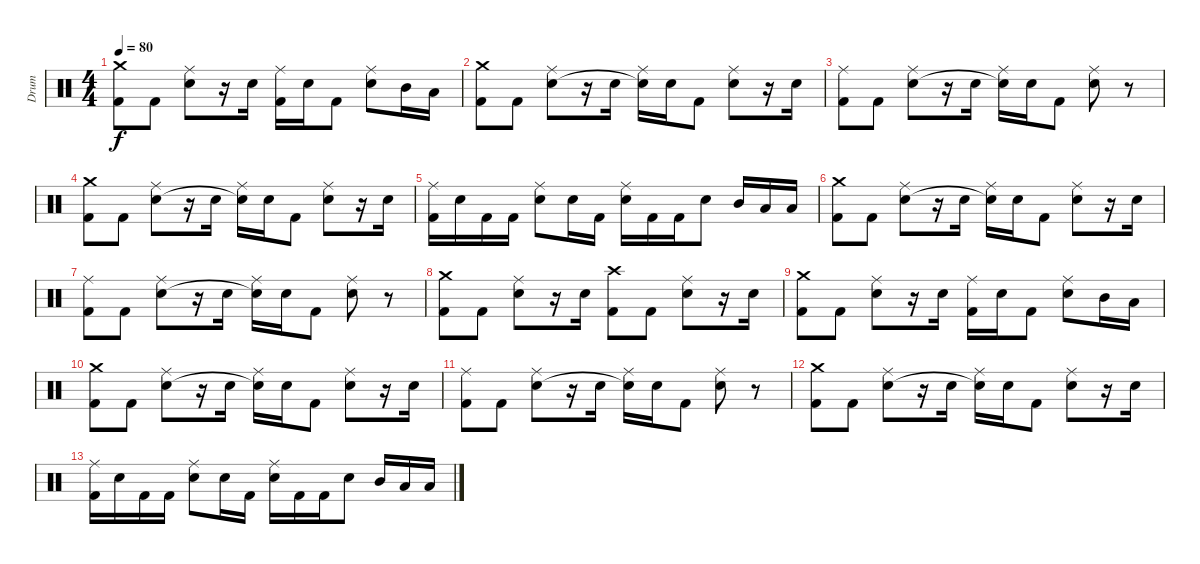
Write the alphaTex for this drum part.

\track ("Drum" "Drum") {instrument percussion}
\staff {score}
\articulation defaults
\ts (4 4)
\tempo 80
\clef neutral
\ks c
("Crash medium (hit)" "Kick (hit) 2").8{dy f} "Kick (hit) 2".8 ("Ride (middle)" "Electric Snare (hit)").8 r.16 "Electric Snare (hit)".16 ("Ride (middle)" "Kick (hit) 2").16 "Electric Snare (hit)".16 "Kick (hit) 2".8 ("Ride (middle)" "Electric Snare (hit)").8 "Mid Tom (hit)".16 "Low Tom (hit)".16 |
("Crash medium (hit)" "Kick (hit) 2").8 "Kick (hit) 2".8 ("Ride (middle)" "Electric Snare (hit)").8 r.16 "Electric Snare (hit)".16 ("Ride (middle)" "Electric Snare (hit)"{t}).16 "Electric Snare (hit)".16 "Kick (hit) 2".8 ("Ride (middle)" "Electric Snare (hit)").8 r.16 "Electric Snare (hit)".16 |
("Ride (middle)" "Kick (hit) 2").8 "Kick (hit) 2".8 ("Ride (middle)" "Electric Snare (hit)").8 r.16 "Electric Snare (hit)".16 ("Ride (middle)" "Electric Snare (hit)"{t}).16 "Electric Snare (hit)".16 "Kick (hit) 2".8 ("Ride (middle)" "Electric Snare (hit)").8 r.8 |
("Crash medium (hit)" "Kick (hit) 2").8 "Kick (hit) 2".8 ("Ride (middle)" "Electric Snare (hit)").8 r.16 "Electric Snare (hit)".16 ("Ride (middle)" "Electric Snare (hit)"{t}).16 "Electric Snare (hit)".16 "Kick (hit) 2".8 ("Ride (middle)" "Electric Snare (hit)").8 r.16 "Electric Snare (hit)".16 |
("Ride (middle)" "Kick (hit) 2").16 "Electric Snare (hit)".16 "Kick (hit) 2".16 "Kick (hit) 2".16 ("Ride (middle)" "Electric Snare (hit)").8 "Electric Snare (hit)".16 "Kick (hit) 2".16 ("Ride (middle)" "Electric Snare (hit)").16 "Kick (hit) 2".16 "Kick (hit) 2".16 "Electric Snare (hit)".8 "Mid Tom (hit)".16 "Low Tom (hit)".16 "Low Floor Tom (hit)".16 |
("Crash medium (hit)" "Kick (hit) 2").8 "Kick (hit) 2".8 ("Ride (middle)" "Electric Snare (hit)").8 r.16 "Electric Snare (hit)".16 ("Ride (middle)" "Electric Snare (hit)"{t}).16 "Electric Snare (hit)".16 "Kick (hit) 2".8 ("Ride (middle)" "Electric Snare (hit)").8 r.16 "Electric Snare (hit)".16 |
("Ride (middle)" "Kick (hit) 2").8 "Kick (hit) 2".8 ("Ride (middle)" "Electric Snare (hit)").8 r.16 "Electric Snare (hit)".16 ("Ride (middle)" "Electric Snare (hit)"{t}).16 "Electric Snare (hit)".16 "Kick (hit) 2".8 ("Ride (middle)" "Electric Snare (hit)").8 r.8 |
("Crash medium (hit)" "Kick (hit) 2").8 "Kick (hit) 2".8 ("Ride (middle)" "Electric Snare (hit)").8 r.16 "Electric Snare (hit)".16 ("Crash high (hit)" "Kick (hit) 2").8 "Kick (hit) 2".8 ("Ride (middle)" "Electric Snare (hit)").8 r.16 "Electric Snare (hit)".16 |
("Crash medium (hit)" "Kick (hit) 2").8 "Kick (hit) 2".8 ("Ride (middle)" "Electric Snare (hit)").8 r.16 "Electric Snare (hit)".16 ("Ride (middle)" "Kick (hit) 2").16 "Electric Snare (hit)".16 "Kick (hit) 2".8 ("Ride (middle)" "Electric Snare (hit)").8 "Mid Tom (hit)".16 "Low Tom (hit)".16 |
("Crash medium (hit)" "Kick (hit) 2").8 "Kick (hit) 2".8 ("Ride (middle)" "Electric Snare (hit)").8 r.16 "Electric Snare (hit)".16 ("Ride (middle)" "Electric Snare (hit)"{t}).16 "Electric Snare (hit)".16 "Kick (hit) 2".8 ("Ride (middle)" "Electric Snare (hit)").8 r.16 "Electric Snare (hit)".16 |
("Ride (middle)" "Kick (hit) 2").8 "Kick (hit) 2".8 ("Ride (middle)" "Electric Snare (hit)").8 r.16 "Electric Snare (hit)".16 ("Ride (middle)" "Electric Snare (hit)"{t}).16 "Electric Snare (hit)".16 "Kick (hit) 2".8 ("Ride (middle)" "Electric Snare (hit)").8 r.8 |
("Crash medium (hit)" "Kick (hit) 2").8 "Kick (hit) 2".8 ("Ride (middle)" "Electric Snare (hit)").8 r.16 "Electric Snare (hit)".16 ("Ride (middle)" "Electric Snare (hit)"{t}).16 "Electric Snare (hit)".16 "Kick (hit) 2".8 ("Ride (middle)" "Electric Snare (hit)").8 r.16 "Electric Snare (hit)".16 |
("Ride (middle)" "Kick (hit) 2").16 "Electric Snare (hit)".16 "Kick (hit) 2".16 "Kick (hit) 2".16 ("Ride (middle)" "Electric Snare (hit)").8 "Electric Snare (hit)".16 "Kick (hit) 2".16 ("Ride (middle)" "Electric Snare (hit)").16 "Kick (hit) 2".16 "Kick (hit) 2".16 "Electric Snare (hit)".8 "Mid Tom (hit)".16 "Low Tom (hit)".16 "Low Floor Tom (hit)".16
